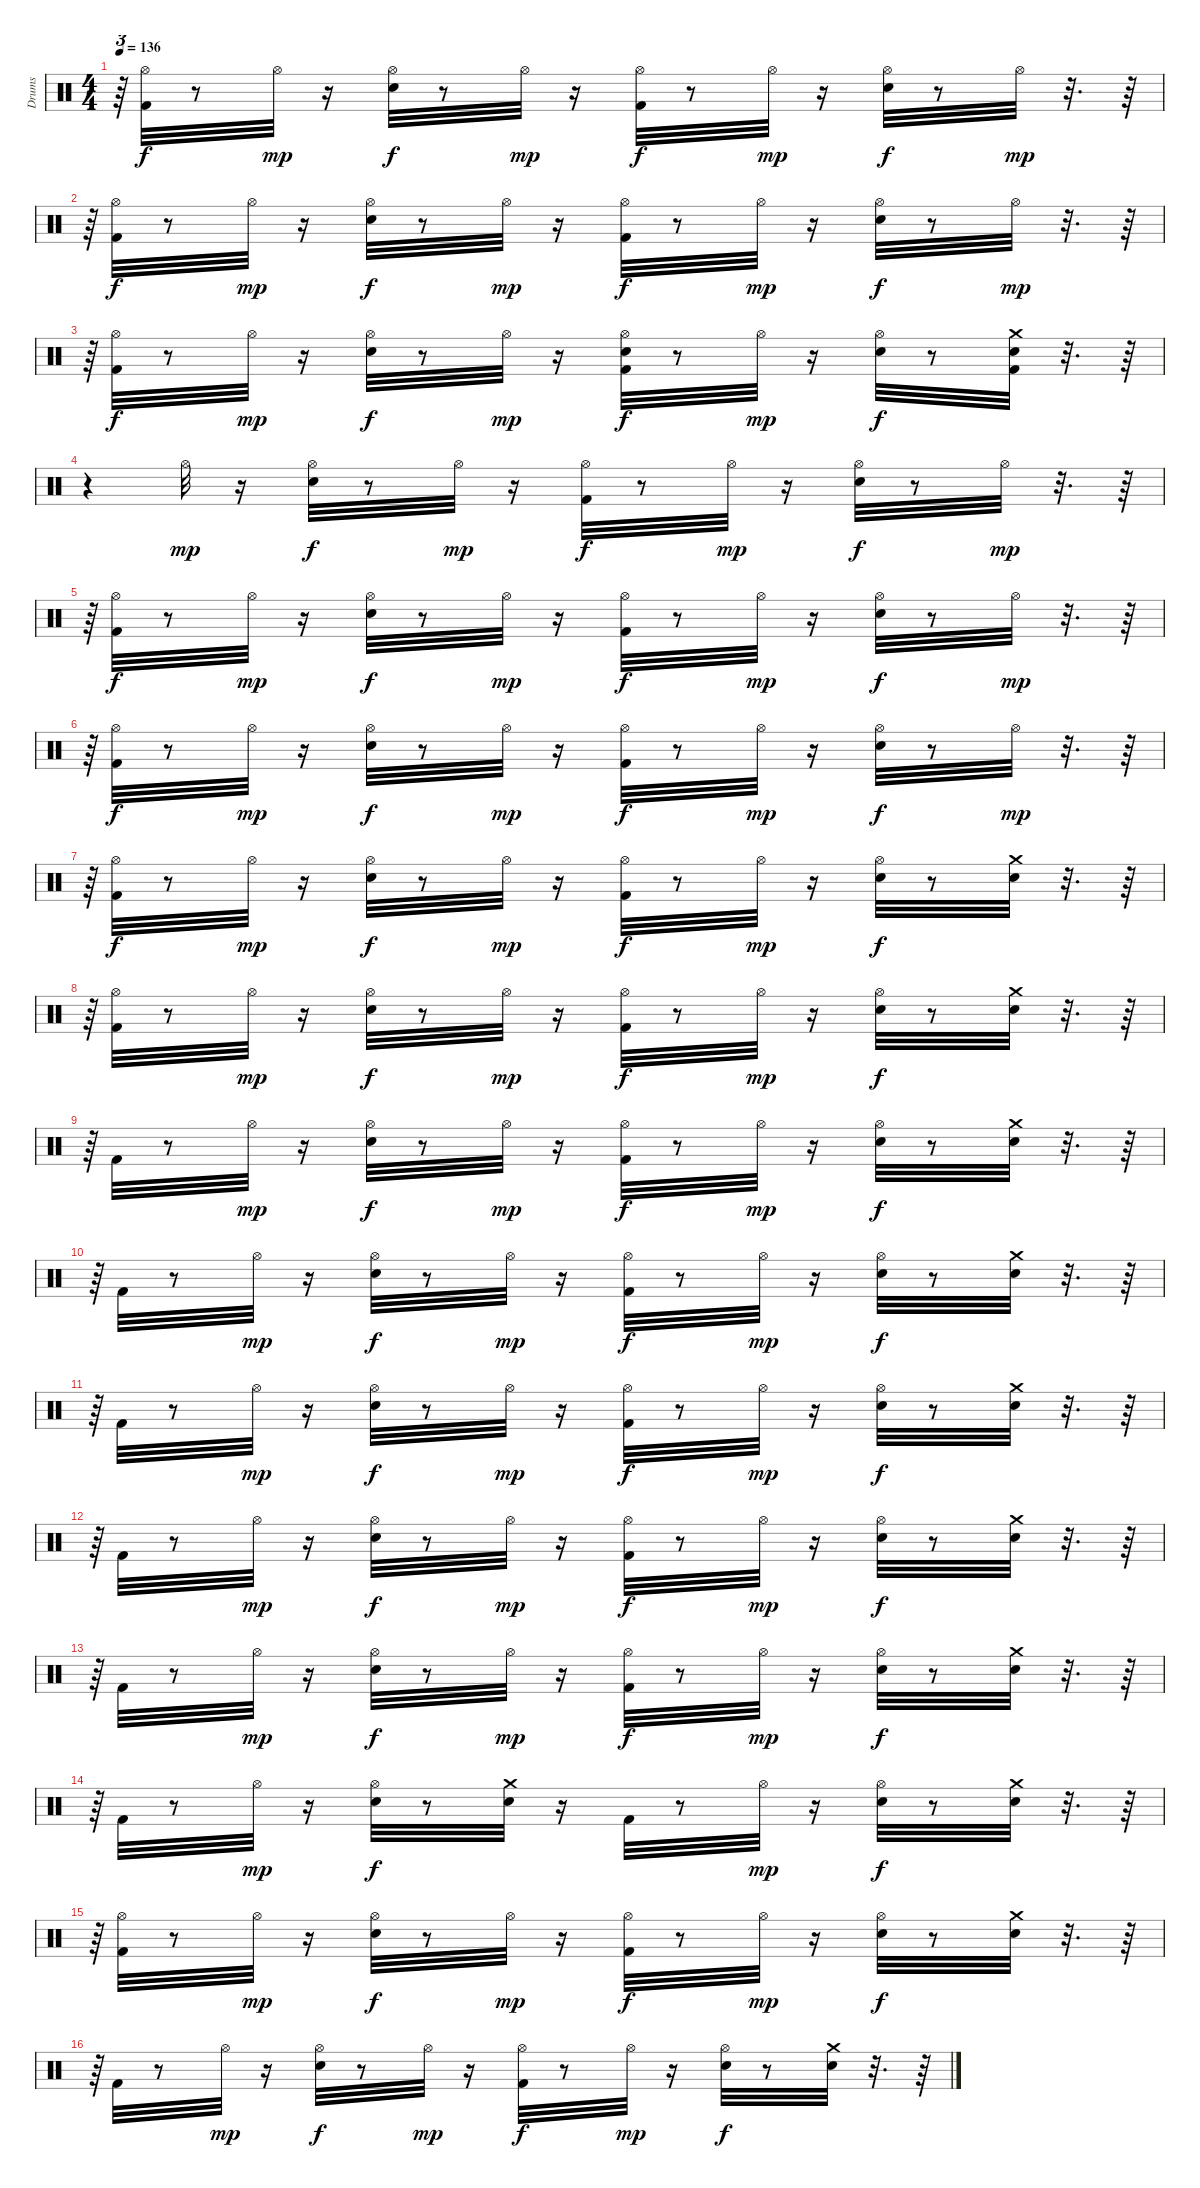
\track ("Drums" "Drums") {instrument percussion}
\staff {score}
\articulation defaults
\ts (4 4)
\tempo 136
\clef neutral
\ks c
r.64{tu (3 2) dy mp} ("Hi-Hat (open)" "Kick (hit) 2").32{dy f} r.8 "Hi-Hat (open)".32{dy mp} r.16 ("Hi-Hat (open)" "Electric Snare (hit)").32{dy f} r.8 "Hi-Hat (open)".32{dy mp} r.16 ("Hi-Hat (open)" "Kick (hit) 2").32{dy f} r.8 "Hi-Hat (open)".32{dy mp} r.16 ("Hi-Hat (open)" "Electric Snare (hit)").32{dy f} r.8 "Hi-Hat (open)".32{dy mp} r.32{d} r.64 |
r.64{tu (3 2)} ("Hi-Hat (open)" "Kick (hit) 2").32{dy f} r.8 "Hi-Hat (open)".32{dy mp} r.16 ("Hi-Hat (open)" "Electric Snare (hit)").32{dy f} r.8 "Hi-Hat (open)".32{dy mp} r.16 ("Hi-Hat (open)" "Kick (hit) 2").32{dy f} r.8 "Hi-Hat (open)".32{dy mp} r.16 ("Hi-Hat (open)" "Electric Snare (hit)").32{dy f} r.8 "Hi-Hat (open)".32{dy mp} r.32{d} r.64 |
r.64{tu (3 2)} ("Hi-Hat (open)" "Kick (hit) 2").32{dy f} r.8 "Hi-Hat (open)".32{dy mp} r.16 ("Hi-Hat (open)" "Electric Snare (hit)").32{dy f} r.8 "Hi-Hat (open)".32{dy mp} r.16 ("Electric Snare (hit)" "Hi-Hat (open)" "Kick (hit) 2").32{dy f} r.8 "Hi-Hat (open)".32{dy mp} r.16 ("Hi-Hat (open)" "Electric Snare (hit)").32{dy f} r.8 ("Electric Snare (hit)" "Kick (hit) 2" "Crash medium (hit)").32 r.32{d} r.64 |
r.4{tu (3 2)} "Hi-Hat (open)".32{dy mp} r.16 ("Hi-Hat (open)" "Electric Snare (hit)").32{dy f} r.8 "Hi-Hat (open)".32{dy mp} r.16 ("Hi-Hat (open)" "Kick (hit) 2").32{dy f} r.8 "Hi-Hat (open)".32{dy mp} r.16 ("Hi-Hat (open)" "Electric Snare (hit)").32{dy f} r.8 "Hi-Hat (open)".32{dy mp} r.32{d} r.64 |
r.64{tu (3 2)} ("Hi-Hat (open)" "Kick (hit) 2").32{dy f} r.8 "Hi-Hat (open)".32{dy mp} r.16 ("Hi-Hat (open)" "Electric Snare (hit)").32{dy f} r.8 "Hi-Hat (open)".32{dy mp} r.16 ("Hi-Hat (open)" "Kick (hit) 2").32{dy f} r.8 "Hi-Hat (open)".32{dy mp} r.16 ("Hi-Hat (open)" "Electric Snare (hit)").32{dy f} r.8 "Hi-Hat (open)".32{dy mp} r.32{d} r.64 |
r.64{tu (3 2)} ("Hi-Hat (open)" "Kick (hit) 2").32{dy f} r.8 "Hi-Hat (open)".32{dy mp} r.16 ("Hi-Hat (open)" "Electric Snare (hit)").32{dy f} r.8 "Hi-Hat (open)".32{dy mp} r.16 ("Hi-Hat (open)" "Kick (hit) 2").32{dy f} r.8 "Hi-Hat (open)".32{dy mp} r.16 ("Hi-Hat (open)" "Electric Snare (hit)").32{dy f} r.8 "Hi-Hat (open)".32{dy mp} r.32{d} r.64 |
r.64{tu (3 2)} ("Hi-Hat (open)" "Kick (hit) 2").32{dy f} r.8 "Hi-Hat (open)".32{dy mp} r.16 ("Hi-Hat (open)" "Electric Snare (hit)").32{dy f} r.8 "Hi-Hat (open)".32{dy mp} r.16 ("Hi-Hat (open)" "Kick (hit) 2").32{dy f} r.8 "Hi-Hat (open)".32{dy mp} r.16 ("Hi-Hat (open)" "Electric Snare (hit)").32{dy f} r.8 ("Crash medium (hit)" "Electric Snare (hit)").32 r.32{d} r.64 |
r.64{tu (3 2)} ("Hi-Hat (open)" "Kick (hit) 2").32 r.8 "Hi-Hat (open)".32{dy mp} r.16 ("Hi-Hat (open)" "Electric Snare (hit)").32{dy f} r.8 "Hi-Hat (open)".32{dy mp} r.16 ("Hi-Hat (open)" "Kick (hit) 2").32{dy f} r.8 "Hi-Hat (open)".32{dy mp} r.16 ("Hi-Hat (open)" "Electric Snare (hit)").32{dy f} r.8 ("Crash medium (hit)" "Electric Snare (hit)").32 r.32{d} r.64 |
r.64{tu (3 2)} "Kick (hit) 2".32 r.8 "Hi-Hat (open)".32{dy mp} r.16 ("Hi-Hat (open)" "Electric Snare (hit)").32{dy f} r.8 "Hi-Hat (open)".32{dy mp} r.16 ("Hi-Hat (open)" "Kick (hit) 2").32{dy f} r.8 "Hi-Hat (open)".32{dy mp} r.16 ("Hi-Hat (open)" "Electric Snare (hit)").32{dy f} r.8 ("Crash medium (hit)" "Electric Snare (hit)").32 r.32{d} r.64 |
r.64{tu (3 2)} "Kick (hit) 2".32 r.8 "Hi-Hat (open)".32{dy mp} r.16 ("Hi-Hat (open)" "Electric Snare (hit)").32{dy f} r.8 "Hi-Hat (open)".32{dy mp} r.16 ("Hi-Hat (open)" "Kick (hit) 2").32{dy f} r.8 "Hi-Hat (open)".32{dy mp} r.16 ("Hi-Hat (open)" "Electric Snare (hit)").32{dy f} r.8 ("Crash medium (hit)" "Electric Snare (hit)").32 r.32{d} r.64 |
r.64{tu (3 2)} "Kick (hit) 2".32 r.8 "Hi-Hat (open)".32{dy mp} r.16 ("Hi-Hat (open)" "Electric Snare (hit)").32{dy f} r.8 "Hi-Hat (open)".32{dy mp} r.16 ("Hi-Hat (open)" "Kick (hit) 2").32{dy f} r.8 "Hi-Hat (open)".32{dy mp} r.16 ("Hi-Hat (open)" "Electric Snare (hit)").32{dy f} r.8 ("Crash medium (hit)" "Electric Snare (hit)").32 r.32{d} r.64 |
r.64{tu (3 2)} "Kick (hit) 2".32 r.8 "Hi-Hat (open)".32{dy mp} r.16 ("Hi-Hat (open)" "Electric Snare (hit)").32{dy f} r.8 "Hi-Hat (open)".32{dy mp} r.16 ("Hi-Hat (open)" "Kick (hit) 2").32{dy f} r.8 "Hi-Hat (open)".32{dy mp} r.16 ("Hi-Hat (open)" "Electric Snare (hit)").32{dy f} r.8 ("Crash medium (hit)" "Electric Snare (hit)").32 r.32{d} r.64 |
r.64{tu (3 2)} "Kick (hit) 2".32 r.8 "Hi-Hat (open)".32{dy mp} r.16 ("Hi-Hat (open)" "Electric Snare (hit)").32{dy f} r.8 "Hi-Hat (open)".32{dy mp} r.16 ("Hi-Hat (open)" "Kick (hit) 2").32{dy f} r.8 "Hi-Hat (open)".32{dy mp} r.16 ("Hi-Hat (open)" "Electric Snare (hit)").32{dy f} r.8 ("Crash medium (hit)" "Electric Snare (hit)").32 r.32{d} r.64 |
r.64{tu (3 2)} "Kick (hit) 2".32 r.8 "Hi-Hat (open)".32{dy mp} r.16 ("Hi-Hat (open)" "Electric Snare (hit)").32{dy f} r.8 ("Crash medium (hit)" "Electric Snare (hit)").32 r.16 "Kick (hit) 2".32 r.8 "Hi-Hat (open)".32{dy mp} r.16 ("Hi-Hat (open)" "Electric Snare (hit)").32{dy f} r.8 ("Crash medium (hit)" "Electric Snare (hit)").32 r.32{d} r.64 |
r.64{tu (3 2)} ("Hi-Hat (open)" "Kick (hit) 2").32 r.8 "Hi-Hat (open)".32{dy mp} r.16 ("Hi-Hat (open)" "Electric Snare (hit)").32{dy f} r.8 "Hi-Hat (open)".32{dy mp} r.16 ("Hi-Hat (open)" "Kick (hit) 2").32{dy f} r.8 "Hi-Hat (open)".32{dy mp} r.16 ("Hi-Hat (open)" "Electric Snare (hit)").32{dy f} r.8 ("Crash medium (hit)" "Electric Snare (hit)").32 r.32{d} r.64 |
r.64{tu (3 2)} "Kick (hit) 2".32 r.8 "Hi-Hat (open)".32{dy mp} r.16 ("Hi-Hat (open)" "Electric Snare (hit)").32{dy f} r.8 "Hi-Hat (open)".32{dy mp} r.16 ("Hi-Hat (open)" "Kick (hit) 2").32{dy f} r.8 "Hi-Hat (open)".32{dy mp} r.16 ("Hi-Hat (open)" "Electric Snare (hit)").32{dy f} r.8 ("Crash medium (hit)" "Electric Snare (hit)").32 r.32{d} r.64
